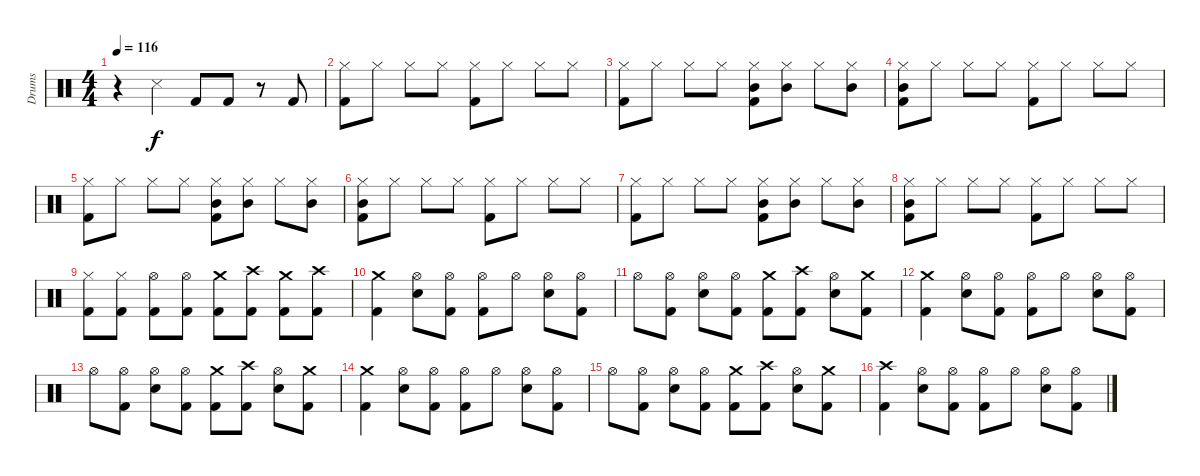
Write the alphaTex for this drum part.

\track ("Drums" "Drums") {instrument percussion}
\staff {score}
\articulation defaults
\ts (4 4)
\tempo 116
\clef neutral
\ks c
r.4{dy f} "Metronome (hit)".4 "Kick (hit) 2".8 "Kick (hit) 2".8 r.8 "Kick (hit) 2".8 |
("Kick (hit) 2" "Hi-Hat (closed)").8 "Hi-Hat (closed)".8 "Hi-Hat (closed)".8 "Hi-Hat (closed)".8 ("Kick (hit) 2" "Hi-Hat (closed)").8 "Hi-Hat (closed)".8 "Hi-Hat (closed)".8 "Hi-Hat (closed)".8 |
("Kick (hit) 2" "Hi-Hat (closed)").8 "Hi-Hat (closed)".8 "Hi-Hat (closed)".8 "Hi-Hat (closed)".8 ("Kick (hit) 2" "Mid Tom (hit)" "Hi-Hat (closed)").8 ("Mid Tom (hit)" "Hi-Hat (closed)").8 "Hi-Hat (closed)".8 ("Mid Tom (hit)" "Hi-Hat (closed)").8 |
("Kick (hit) 2" "Mid Tom (hit)" "Hi-Hat (closed)").8 "Hi-Hat (closed)".8 "Hi-Hat (closed)".8 "Hi-Hat (closed)".8 ("Kick (hit) 2" "Hi-Hat (closed)").8 "Hi-Hat (closed)".8 "Hi-Hat (closed)".8 "Hi-Hat (closed)".8 |
("Kick (hit) 2" "Hi-Hat (closed)").8 "Hi-Hat (closed)".8 "Hi-Hat (closed)".8 "Hi-Hat (closed)".8 ("Kick (hit) 2" "Mid Tom (hit)" "Hi-Hat (closed)").8 ("Mid Tom (hit)" "Hi-Hat (closed)").8 "Hi-Hat (closed)".8 ("Mid Tom (hit)" "Hi-Hat (closed)").8 |
("Kick (hit) 2" "Mid Tom (hit)" "Hi-Hat (closed)").8 "Hi-Hat (closed)".8 "Hi-Hat (closed)".8 "Hi-Hat (closed)".8 ("Kick (hit) 2" "Hi-Hat (closed)").8 "Hi-Hat (closed)".8 "Hi-Hat (closed)".8 "Hi-Hat (closed)".8 |
("Kick (hit) 2" "Hi-Hat (closed)").8 "Hi-Hat (closed)".8 "Hi-Hat (closed)".8 "Hi-Hat (closed)".8 ("Kick (hit) 2" "Mid Tom (hit)" "Hi-Hat (closed)").8 ("Mid Tom (hit)" "Hi-Hat (closed)").8 "Hi-Hat (closed)".8 ("Mid Tom (hit)" "Hi-Hat (closed)").8 |
("Kick (hit) 2" "Mid Tom (hit)" "Hi-Hat (closed)").8 "Hi-Hat (closed)".8 "Hi-Hat (closed)".8 "Hi-Hat (closed)".8 ("Kick (hit) 2" "Hi-Hat (closed)").8 "Hi-Hat (closed)".8 "Hi-Hat (closed)".8 "Hi-Hat (closed)".8 |
("Kick (hit) 2" "Hi-Hat (closed)").8 ("Kick (hit) 2" "Hi-Hat (closed)").8 ("Kick (hit) 2" "Hi-Hat (open)").8 ("Kick (hit) 2" "Hi-Hat (open)").8 ("Kick (hit) 2" "Crash medium (hit)").8 ("Kick (hit) 2" "Crash high (hit)").8 ("Kick (hit) 2" "Crash medium (hit)").8 ("Kick (hit) 2" "Crash high (hit)").8 |
("Kick (hit) 2" "Crash medium (hit)").4 ("Electric Snare (hit)" "Hi-Hat (open)").8 ("Kick (hit) 2" "Hi-Hat (open)").8 ("Kick (hit) 2" "Hi-Hat (open)").8 "Hi-Hat (open)".8 ("Electric Snare (hit)" "Hi-Hat (open)").8 ("Kick (hit) 2" "Hi-Hat (open)").8 |
"Hi-Hat (open)".8 ("Kick (hit) 2" "Hi-Hat (open)").8 ("Electric Snare (hit)" "Hi-Hat (open)").8 ("Kick (hit) 2" "Hi-Hat (open)").8 ("Kick (hit) 2" "Crash medium (hit)").8 ("Kick (hit) 2" "Crash high (hit)").8 ("Electric Snare (hit)" "Hi-Hat (open)").8 ("Kick (hit) 2" "Crash medium (hit)").8 |
("Kick (hit) 2" "Crash medium (hit)").4 ("Electric Snare (hit)" "Hi-Hat (open)").8 ("Kick (hit) 2" "Hi-Hat (open)").8 ("Kick (hit) 2" "Hi-Hat (open)").8 "Hi-Hat (open)".8 ("Electric Snare (hit)" "Hi-Hat (open)").8 ("Kick (hit) 2" "Hi-Hat (open)").8 |
"Hi-Hat (open)".8 ("Kick (hit) 2" "Hi-Hat (open)").8 ("Electric Snare (hit)" "Hi-Hat (open)").8 ("Kick (hit) 2" "Hi-Hat (open)").8 ("Kick (hit) 2" "Crash medium (hit)").8 ("Kick (hit) 2" "Crash high (hit)").8 ("Electric Snare (hit)" "Hi-Hat (open)").8 ("Kick (hit) 2" "Crash medium (hit)").8 |
("Kick (hit) 2" "Crash medium (hit)").4 ("Electric Snare (hit)" "Hi-Hat (open)").8 ("Kick (hit) 2" "Hi-Hat (open)").8 ("Kick (hit) 2" "Hi-Hat (open)").8 "Hi-Hat (open)".8 ("Electric Snare (hit)" "Hi-Hat (open)").8 ("Kick (hit) 2" "Hi-Hat (open)").8 |
"Hi-Hat (open)".8 ("Kick (hit) 2" "Hi-Hat (open)").8 ("Electric Snare (hit)" "Hi-Hat (open)").8 ("Kick (hit) 2" "Hi-Hat (open)").8 ("Kick (hit) 2" "Crash medium (hit)").8 ("Kick (hit) 2" "Crash high (hit)").8 ("Electric Snare (hit)" "Hi-Hat (open)").8 ("Kick (hit) 2" "Crash medium (hit)").8 |
("Kick (hit) 2" "Crash high (hit)").4 ("Electric Snare (hit)" "Hi-Hat (open)").8 ("Kick (hit) 2" "Hi-Hat (open)").8 ("Kick (hit) 2" "Hi-Hat (open)").8 "Hi-Hat (open)".8 ("Electric Snare (hit)" "Hi-Hat (open)").8 ("Kick (hit) 2" "Hi-Hat (open)").8
